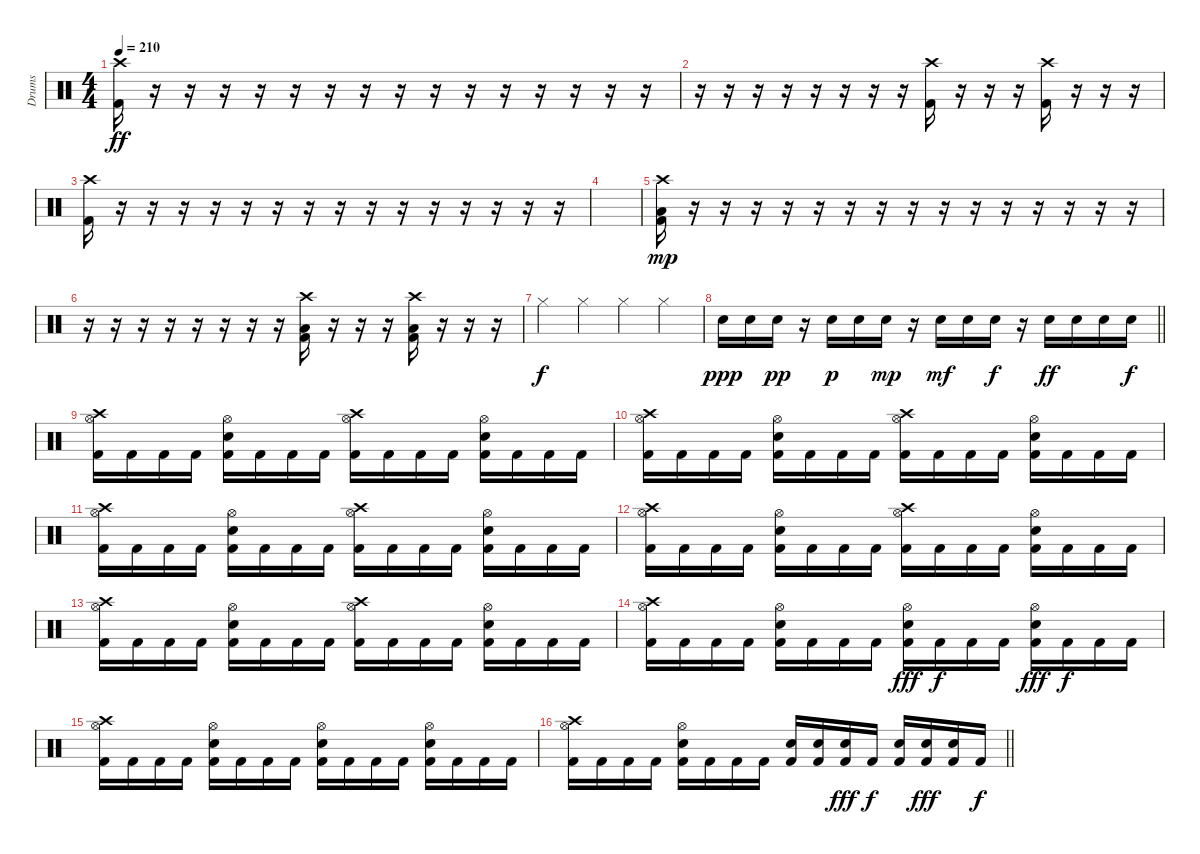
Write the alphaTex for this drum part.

\track ("Drums" "Drums") {instrument percussion}
\staff {score}
\articulation defaults
\ts (4 4)
\tempo 210
\clef neutral
\ks c
("Crash high (hit)" "Kick (hit) 2").16{dy ff} r.16 r.16 r.16 r.16 r.16 r.16 r.16 r.16 r.16 r.16 r.16 r.16 r.16 r.16 r.16 |
r.16 r.16 r.16 r.16 r.16 r.16 r.16 r.16 ("Crash high (hit)" "Kick (hit) 2").16 r.16 r.16 r.16 ("Crash high (hit)" "Kick (hit) 2").16 r.16 r.16 r.16 |
("Crash high (hit)" "Kick (hit) 2").16 r.16 r.16 r.16 r.16 r.16 r.16 r.16 r.16 r.16 r.16 r.16 r.16 r.16 r.16 r.16 |
|
("Crash high (hit)" "Low Tom (hit)" "Kick (hit) 2").16{dy mp} r.16 r.16 r.16 r.16 r.16 r.16 r.16 r.16 r.16 r.16 r.16 r.16 r.16 r.16 r.16 |
r.16 r.16 r.16 r.16 r.16 r.16 r.16 r.16 ("Crash high (hit)" "Low Tom (hit)" "Kick (hit) 2").16 r.16 r.16 r.16 ("Crash high (hit)" "Low Tom (hit)" "Kick (hit) 2").16 r.16 r.16 r.16 |
"Hi-Hat (closed)".4{dy f} "Hi-Hat (closed)".4 "Hi-Hat (closed)".4 "Hi-Hat (closed)".4 |
\barLineRight lightlight "Snare (hit) 2".16{dy ppp} "Snare (hit) 2".16 "Snare (hit) 2".16{dy pp}
r.16 "Snare (hit) 2".16{dy p} "Snare (hit) 2".16 "Snare (hit) 2".16{dy mp} r.16 "Snare (hit) 2".16{dy mf} "Snare (hit) 2".16 "Snare (hit) 2".16{dy f} r.16 "Snare (hit) 2".16{dy ff} "Snare (hit) 2".16 "Snare (hit) 2".16 "Snare (hit) 2".16{dy f} |
("Crash high (hit)" "Hi-Hat (open)" "Kick (hit) 2").16 "Kick (hit) 2".16 "Kick (hit) 2".16 "Kick (hit) 2".16 ("Hi-Hat (open)" "Snare (hit) 2" "Kick (hit) 2").16 "Kick (hit) 2".16 "Kick (hit) 2".16 "Kick (hit) 2".16 ("Crash high (hit)" "Hi-Hat (open)" "Kick (hit) 2").16 "Kick (hit) 2".16 "Kick (hit) 2".16 "Kick (hit) 2".16 ("Hi-Hat (open)" "Snare (hit) 2" "Kick (hit) 2").16 "Kick (hit) 2".16 "Kick (hit) 2".16 "Kick (hit) 2".16 |
("Crash high (hit)" "Hi-Hat (open)" "Kick (hit) 2").16 "Kick (hit) 2".16 "Kick (hit) 2".16 "Kick (hit) 2".16 ("Hi-Hat (open)" "Snare (hit) 2" "Kick (hit) 2").16 "Kick (hit) 2".16 "Kick (hit) 2".16 "Kick (hit) 2".16 ("Crash high (hit)" "Hi-Hat (open)" "Kick (hit) 2").16 "Kick (hit) 2".16 "Kick (hit) 2".16 "Kick (hit) 2".16 ("Hi-Hat (open)" "Snare (hit) 2" "Kick (hit) 2").16 "Kick (hit) 2".16 "Kick (hit) 2".16 "Kick (hit) 2".16 |
("Crash high (hit)" "Hi-Hat (open)" "Kick (hit) 2").16 "Kick (hit) 2".16 "Kick (hit) 2".16 "Kick (hit) 2".16 ("Hi-Hat (open)" "Snare (hit) 2" "Kick (hit) 2").16 "Kick (hit) 2".16 "Kick (hit) 2".16 "Kick (hit) 2".16 ("Crash high (hit)" "Hi-Hat (open)" "Kick (hit) 2").16 "Kick (hit) 2".16 "Kick (hit) 2".16 "Kick (hit) 2".16 ("Hi-Hat (open)" "Snare (hit) 2" "Kick (hit) 2").16 "Kick (hit) 2".16 "Kick (hit) 2".16 "Kick (hit) 2".16 |
("Crash high (hit)" "Hi-Hat (open)" "Kick (hit) 2").16 "Kick (hit) 2".16 "Kick (hit) 2".16 "Kick (hit) 2".16 ("Hi-Hat (open)" "Snare (hit) 2" "Kick (hit) 2").16 "Kick (hit) 2".16 "Kick (hit) 2".16 "Kick (hit) 2".16 ("Crash high (hit)" "Hi-Hat (open)" "Kick (hit) 2").16 "Kick (hit) 2".16 "Kick (hit) 2".16 "Kick (hit) 2".16 ("Hi-Hat (open)" "Snare (hit) 2" "Kick (hit) 2").16 "Kick (hit) 2".16 "Kick (hit) 2".16 "Kick (hit) 2".16 |
("Crash high (hit)" "Hi-Hat (open)" "Kick (hit) 2").16 "Kick (hit) 2".16 "Kick (hit) 2".16 "Kick (hit) 2".16 ("Hi-Hat (open)" "Snare (hit) 2" "Kick (hit) 2").16 "Kick (hit) 2".16 "Kick (hit) 2".16 "Kick (hit) 2".16 ("Crash high (hit)" "Hi-Hat (open)" "Kick (hit) 2").16 "Kick (hit) 2".16 "Kick (hit) 2".16 "Kick (hit) 2".16 ("Hi-Hat (open)" "Snare (hit) 2" "Kick (hit) 2").16 "Kick (hit) 2".16 "Kick (hit) 2".16 "Kick (hit) 2".16 |
("Crash high (hit)" "Hi-Hat (open)" "Kick (hit) 2").16 "Kick (hit) 2".16 "Kick (hit) 2".16 "Kick (hit) 2".16 ("Hi-Hat (open)" "Snare (hit) 2" "Kick (hit) 2").16 "Kick (hit) 2".16 "Kick (hit) 2".16 "Kick (hit) 2".16 ("Hi-Hat (open)" "Snare (hit) 2" "Kick (hit) 2").16{dy fff} "Kick (hit) 2".16{dy f} "Kick (hit) 2".16 "Kick (hit) 2".16 ("Hi-Hat (open)" "Snare (hit) 2" "Kick (hit) 2").16{dy fff} "Kick (hit) 2".16{dy f} "Kick (hit) 2".16 "Kick (hit) 2".16 |
("Crash high (hit)" "Hi-Hat (open)" "Kick (hit) 2").16 "Kick (hit) 2".16 "Kick (hit) 2".16 "Kick (hit) 2".16 ("Hi-Hat (open)" "Snare (hit) 2" "Kick (hit) 2").16 "Kick (hit) 2".16 "Kick (hit) 2".16 "Kick (hit) 2".16 ("Hi-Hat (open)" "Snare (hit) 2" "Kick (hit) 2").16 "Kick (hit) 2".16 "Kick (hit) 2".16 "Kick (hit) 2".16 ("Hi-Hat (open)" "Snare (hit) 2" "Kick (hit) 2").16 "Kick (hit) 2".16 "Kick (hit) 2".16 "Kick (hit) 2".16 |
\barLineRight lightlight
("Crash high (hit)" "Hi-Hat (open)" "Kick (hit) 2").16 "Kick (hit) 2".16 "Kick (hit) 2".16 "Kick (hit) 2".16 ("Hi-Hat (open)" "Snare (hit) 2" "Kick (hit) 2").16 "Kick (hit) 2".16 "Kick (hit) 2".16 "Kick (hit) 2".16 ("Snare (hit) 2" "Kick (hit) 2").16 ("Snare (hit) 2" "Kick (hit) 2").16 ("Snare (hit) 2" "Kick (hit) 2").16{dy fff} "Kick (hit) 2".16{dy f} ("Snare (hit) 2" "Kick (hit) 2").16 ("Snare (hit) 2" "Kick (hit) 2").16{dy fff} ("Snare (hit) 2" "Kick (hit) 2").16 "Kick (hit) 2".16{dy f}
